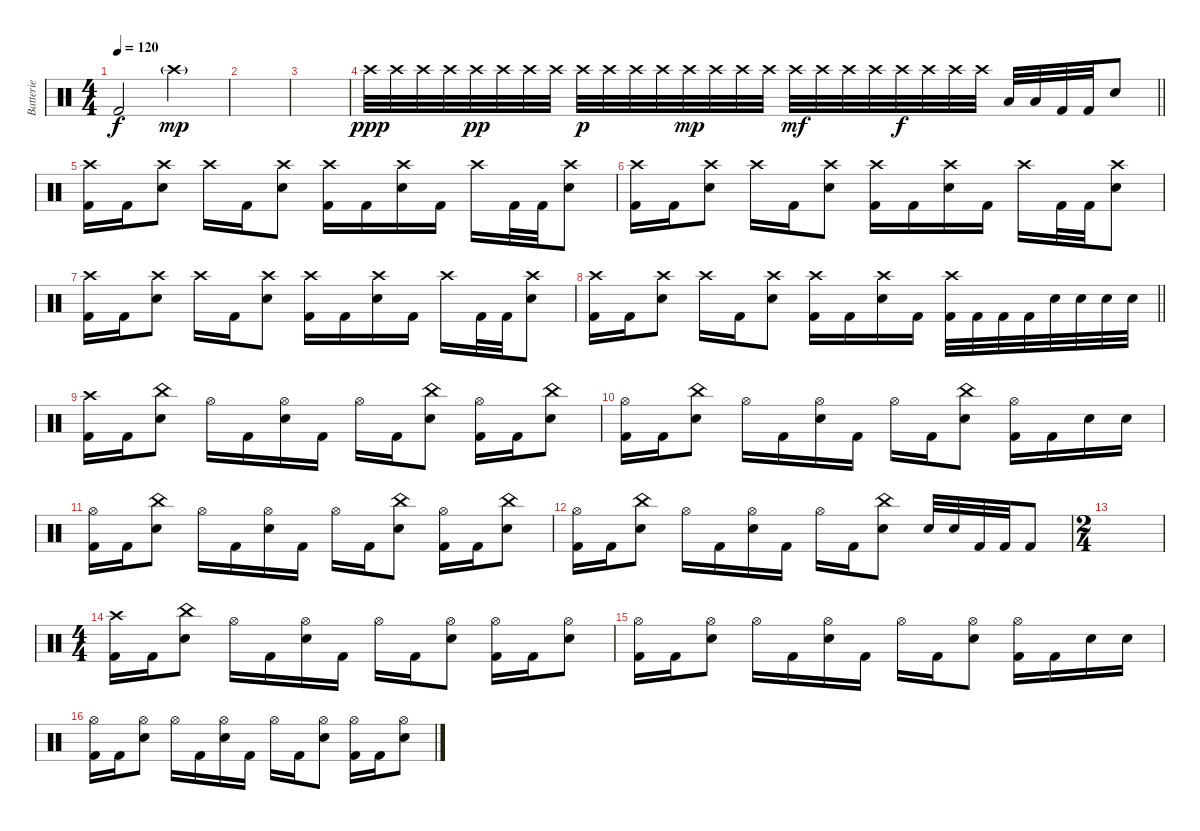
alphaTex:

\track ("Batterie" "Batterie") {instrument percussion}
\staff {score}
\articulation defaults
\ts (4 4)
\tempo 120
\clef neutral
\ks c "Kick (hit) 2".2{dy f} "Crash high (hit)"{g}.2{dy mp}
|
|
|
\barLineRight lightlight "Crash high (hit)".32{dy ppp} "Crash high (hit)".32 "Crash high (hit)".32 "Crash high (hit)".32 "Crash high (hit)".32{dy pp} "Crash high (hit)".32 "Crash high (hit)".32 "Crash high (hit)".32 "Crash high (hit)".32{dy p} "Crash high (hit)".32 "Crash high (hit)".32 "Crash high (hit)".32 "Crash high (hit)".32{dy mp} "Crash high (hit)".32 "Crash high (hit)".32 "Crash high (hit)".32 "Crash high (hit)".32{dy mf} "Crash high (hit)".32 "Crash high (hit)".32 "Crash high (hit)".32 "Crash high (hit)".32{dy f} "Crash high (hit)".32 "Crash high (hit)".32 "Crash high (hit)".32 "Low Tom (hit)".32 "Low Tom (hit)".32 "Kick (hit) 2".32 "Kick (hit) 2".32 "Electric Snare (hit)".8
|
("Crash high (hit)" "Kick (hit) 2").16 "Kick (hit) 2".16 ("Crash high (hit)" "Electric Snare (hit)").8 "Crash high (hit)".16 "Kick (hit) 2".16 ("Crash high (hit)" "Electric Snare (hit)").8 ("Crash high (hit)" "Kick (hit) 2").16 "Kick (hit) 2".16 ("Crash high (hit)" "Electric Snare (hit)").16 "Kick (hit) 2".16 "Crash high (hit)".16 "Kick (hit) 2".32 "Kick (hit) 2".32 ("Crash high (hit)" "Electric Snare (hit)").8 |
("Crash high (hit)" "Kick (hit) 2").16 "Kick (hit) 2".16 ("Crash high (hit)" "Electric Snare (hit)").8 "Crash high (hit)".16 "Kick (hit) 2".16 ("Crash high (hit)" "Electric Snare (hit)").8 ("Crash high (hit)" "Kick (hit) 2").16 "Kick (hit) 2".16 ("Crash high (hit)" "Electric Snare (hit)").16 "Kick (hit) 2".16 "Crash high (hit)".16 "Kick (hit) 2".32 "Kick (hit) 2".32 ("Crash high (hit)" "Electric Snare (hit)").8 |
("Crash high (hit)" "Kick (hit) 2").16 "Kick (hit) 2".16 ("Crash high (hit)" "Electric Snare (hit)").8 "Crash high (hit)".16 "Kick (hit) 2".16 ("Crash high (hit)" "Electric Snare (hit)").8 ("Crash high (hit)" "Kick (hit) 2").16 "Kick (hit) 2".16 ("Crash high (hit)" "Electric Snare (hit)").16 "Kick (hit) 2".16 "Crash high (hit)".16 "Kick (hit) 2".32 "Kick (hit) 2".32 ("Crash high (hit)" "Electric Snare (hit)").8 |
\barLineRight lightlight
("Crash high (hit)" "Kick (hit) 2").16 "Kick (hit) 2".16 ("Crash high (hit)" "Electric Snare (hit)").8 "Crash high (hit)".16 "Kick (hit) 2".16 ("Crash high (hit)" "Electric Snare (hit)").8 ("Crash high (hit)" "Kick (hit) 2").16 "Kick (hit) 2".16 ("Crash high (hit)" "Electric Snare (hit)").16 "Kick (hit) 2".16 ("Crash high (hit)" "Kick (hit) 2").32 "Kick (hit) 2".32 "Kick (hit) 2".32 "Kick (hit) 2".32 "Electric Snare (hit)".32 "Electric Snare (hit)".32 "Electric Snare (hit)".32 "Electric Snare (hit)".32 |
("Crash high (hit)" "Kick (hit) 2").16 "Kick (hit) 2".16 ("China (hit)" "Electric Snare (hit)").8 "Hi-Hat (open)".16 "Kick (hit) 2".16 ("Hi-Hat (open)" "Electric Snare (hit)").16 "Kick (hit) 2".16 "Hi-Hat (open)".16 "Kick (hit) 2".16 ("China (hit)" "Electric Snare (hit)").8 ("Hi-Hat (open)" "Kick (hit) 2").16 "Kick (hit) 2".16 ("China (hit)" "Electric Snare (hit)").8 |
("Hi-Hat (open)" "Kick (hit) 2").16 "Kick (hit) 2".16 ("China (hit)" "Electric Snare (hit)").8 "Hi-Hat (open)".16 "Kick (hit) 2".16 ("Hi-Hat (open)" "Electric Snare (hit)").16 "Kick (hit) 2".16 "Hi-Hat (open)".16 "Kick (hit) 2".16 ("China (hit)" "Electric Snare (hit)").8 ("Hi-Hat (open)" "Kick (hit) 2").16 "Kick (hit) 2".16 "Electric Snare (hit)".16 "Electric Snare (hit)".16 |
("Hi-Hat (open)" "Kick (hit) 2").16 "Kick (hit) 2".16 ("China (hit)" "Electric Snare (hit)").8 "Hi-Hat (open)".16 "Kick (hit) 2".16 ("Hi-Hat (open)" "Electric Snare (hit)").16 "Kick (hit) 2".16 "Hi-Hat (open)".16 "Kick (hit) 2".16 ("China (hit)" "Electric Snare (hit)").8 ("Hi-Hat (open)" "Kick (hit) 2").16 "Kick (hit) 2".16 ("China (hit)" "Electric Snare (hit)").8 |
("Hi-Hat (open)" "Kick (hit) 2").16 "Kick (hit) 2".16 ("China (hit)" "Electric Snare (hit)").8 "Hi-Hat (open)".16 "Kick (hit) 2".16 ("Hi-Hat (open)" "Electric Snare (hit)").16 "Kick (hit) 2".16 "Hi-Hat (open)".16 "Kick (hit) 2".16 ("China (hit)" "Electric Snare (hit)").8 "Electric Snare (hit)".32 "Electric Snare (hit)".32 "Kick (hit) 2".32 "Kick (hit) 2".32 "Kick (hit) 2".8 |
\ts (2 4)
|
\ts (4 4)
("Crash high (hit)" "Kick (hit) 2").16 "Kick (hit) 2".16 ("China (hit)" "Electric Snare (hit)").8 "Hi-Hat (open)".16 "Kick (hit) 2".16 ("Hi-Hat (open)" "Electric Snare (hit)").16 "Kick (hit) 2".16 "Hi-Hat (open)".16 "Kick (hit) 2".16 ("Hi-Hat (open)" "Electric Snare (hit)").8 ("Hi-Hat (open)" "Kick (hit) 2").16 "Kick (hit) 2".16 ("Hi-Hat (open)" "Electric Snare (hit)").8 |
("Hi-Hat (open)" "Kick (hit) 2").16 "Kick (hit) 2".16 ("Hi-Hat (open)" "Electric Snare (hit)").8 "Hi-Hat (open)".16 "Kick (hit) 2".16 ("Hi-Hat (open)" "Electric Snare (hit)").16 "Kick (hit) 2".16 "Hi-Hat (open)".16 "Kick (hit) 2".16 ("Hi-Hat (open)" "Electric Snare (hit)").8 ("Hi-Hat (open)" "Kick (hit) 2").16 "Kick (hit) 2".16 "Electric Snare (hit)".16 "Electric Snare (hit)".16 |
("Hi-Hat (open)" "Kick (hit) 2").16 "Kick (hit) 2".16 ("Hi-Hat (open)" "Electric Snare (hit)").8 "Hi-Hat (open)".16 "Kick (hit) 2".16 ("Hi-Hat (open)" "Electric Snare (hit)").16 "Kick (hit) 2".16 "Hi-Hat (open)".16 "Kick (hit) 2".16 ("Hi-Hat (open)" "Electric Snare (hit)").8 ("Hi-Hat (open)" "Kick (hit) 2").16 "Kick (hit) 2".16 ("Hi-Hat (open)" "Electric Snare (hit)").8
